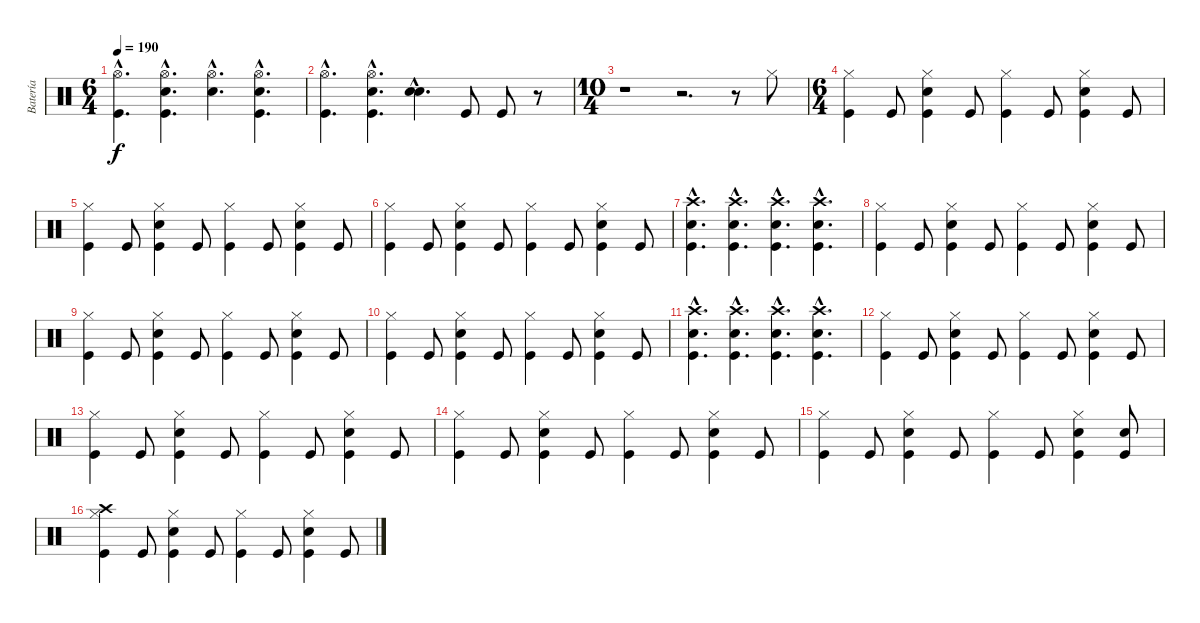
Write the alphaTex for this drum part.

\track ("Batería" "Batería") {instrument percussion}
\staff {score}
\articulation defaults
\ts (6 4)
\tempo 190
\clef neutral
\ks c
("Hi-Hat (open)"{hac} "Kick (hit)"{hac}).4{d dy f} ("Kick (hit)"{hac} "Hi-Hat (open)"{hac} "Snare (hit) 2"{hac}).4{d} ("Hi-Hat (open)"{hac} "Metronome (bell)"{hac}).4{d} ("Kick (hit)"{hac} "Hi-Hat (open)"{hac} "Snare (hit) 2"{hac}).4{d} |
("Hi-Hat (open)"{hac} "Kick (hit)"{hac}).4{d} ("Kick (hit)"{hac} "Hi-Hat (open)"{hac} "Snare (hit) 2"{hac}).4{d} ("Snare (hit) 2"{hac} "Snare (hit) 2"{hac}).4{d} "Kick (hit)".8 "Kick (hit)".8 r.8 |
\ts (10 4)
r.1 r.2{d} r.8 "Hi-Hat (closed)".8 |
\ts (6 4)
("Hi-Hat (closed)" "Kick (hit)").4 "Kick (hit)".8 ("Kick (hit)" "Hi-Hat (closed)" "Snare (hit) 2").4 "Kick (hit)".8 ("Hi-Hat (closed)" "Kick (hit)").4 "Kick (hit)".8 ("Kick (hit)" "Hi-Hat (closed)" "Snare (hit) 2").4 "Kick (hit)".8 |
("Hi-Hat (closed)" "Kick (hit)").4 "Kick (hit)".8 ("Kick (hit)" "Hi-Hat (closed)" "Snare (hit) 2").4 "Kick (hit)".8 ("Hi-Hat (closed)" "Kick (hit)").4 "Kick (hit)".8 ("Kick (hit)" "Hi-Hat (closed)" "Snare (hit) 2").4 "Kick (hit)".8 |
("Hi-Hat (closed)" "Kick (hit)").4 "Kick (hit)".8 ("Kick (hit)" "Hi-Hat (closed)" "Snare (hit) 2").4 "Kick (hit)".8 ("Hi-Hat (closed)" "Kick (hit)").4 "Kick (hit)".8 ("Kick (hit)" "Hi-Hat (closed)" "Snare (hit) 2").4 "Kick (hit)".8 |
("Crash high (hit)"{hac} "Kick (hit)"{hac} "Snare (hit) 2"{hac}).4{d} ("Crash high (hit)"{hac} "Kick (hit)"{hac} "Snare (hit) 2"{hac}).4{d} ("Crash high (hit)"{hac} "Kick (hit)"{hac} "Snare (hit) 2"{hac}).4{d} ("Crash high (hit)"{hac} "Kick (hit)"{hac} "Snare (hit) 2"{hac}).4{d} |
("Hi-Hat (closed)" "Kick (hit)").4 "Kick (hit)".8 ("Kick (hit)" "Hi-Hat (closed)" "Snare (hit) 2").4 "Kick (hit)".8 ("Hi-Hat (closed)" "Kick (hit)").4 "Kick (hit)".8 ("Kick (hit)" "Hi-Hat (closed)" "Snare (hit) 2").4 "Kick (hit)".8 |
("Hi-Hat (closed)" "Kick (hit)").4 "Kick (hit)".8 ("Kick (hit)" "Hi-Hat (closed)" "Snare (hit) 2").4 "Kick (hit)".8 ("Hi-Hat (closed)" "Kick (hit)").4 "Kick (hit)".8 ("Kick (hit)" "Hi-Hat (closed)" "Snare (hit) 2").4 "Kick (hit)".8 |
("Hi-Hat (closed)" "Kick (hit)").4 "Kick (hit)".8 ("Kick (hit)" "Hi-Hat (closed)" "Snare (hit) 2").4 "Kick (hit)".8 ("Hi-Hat (closed)" "Kick (hit)").4 "Kick (hit)".8 ("Kick (hit)" "Hi-Hat (closed)" "Snare (hit) 2").4 "Kick (hit)".8 |
("Crash high (hit)"{hac} "Kick (hit)"{hac} "Snare (hit) 2"{hac}).4{d} ("Crash high (hit)"{hac} "Kick (hit)"{hac} "Snare (hit) 2"{hac}).4{d} ("Crash high (hit)"{hac} "Kick (hit)"{hac} "Snare (hit) 2"{hac}).4{d} ("Crash high (hit)"{hac} "Kick (hit)"{hac} "Snare (hit) 2"{hac}).4{d} |
("Hi-Hat (closed)" "Kick (hit)").4 "Kick (hit)".8 ("Kick (hit)" "Hi-Hat (closed)" "Snare (hit) 2").4 "Kick (hit)".8 ("Hi-Hat (closed)" "Kick (hit)").4 "Kick (hit)".8 ("Kick (hit)" "Hi-Hat (closed)" "Snare (hit) 2").4 "Kick (hit)".8 |
("Hi-Hat (closed)" "Kick (hit)").4 "Kick (hit)".8 ("Kick (hit)" "Hi-Hat (closed)" "Snare (hit) 2").4 "Kick (hit)".8 ("Hi-Hat (closed)" "Kick (hit)").4 "Kick (hit)".8 ("Kick (hit)" "Hi-Hat (closed)" "Snare (hit) 2").4 "Kick (hit)".8 |
("Hi-Hat (closed)" "Kick (hit)").4 "Kick (hit)".8 ("Kick (hit)" "Hi-Hat (closed)" "Snare (hit) 2").4 "Kick (hit)".8 ("Hi-Hat (closed)" "Kick (hit)").4 "Kick (hit)".8 ("Kick (hit)" "Hi-Hat (closed)" "Snare (hit) 2").4 "Kick (hit)".8 |
("Hi-Hat (closed)" "Kick (hit)").4 "Kick (hit)".8 ("Kick (hit)" "Hi-Hat (closed)" "Snare (hit) 2").4 "Kick (hit)".8 ("Hi-Hat (closed)" "Kick (hit)").4 "Kick (hit)".8 ("Kick (hit)" "Hi-Hat (closed)" "Snare (hit) 2").4 ("Snare (hit) 2" "Kick (hit)").8 |
("Crash high (hit)" "Hi-Hat (closed)" "Kick (hit)").4 "Kick (hit)".8 ("Kick (hit)" "Hi-Hat (closed)" "Snare (hit) 2").4 "Kick (hit)".8 ("Hi-Hat (closed)" "Kick (hit)").4 "Kick (hit)".8 ("Kick (hit)" "Hi-Hat (closed)" "Snare (hit) 2").4 "Kick (hit)".8
